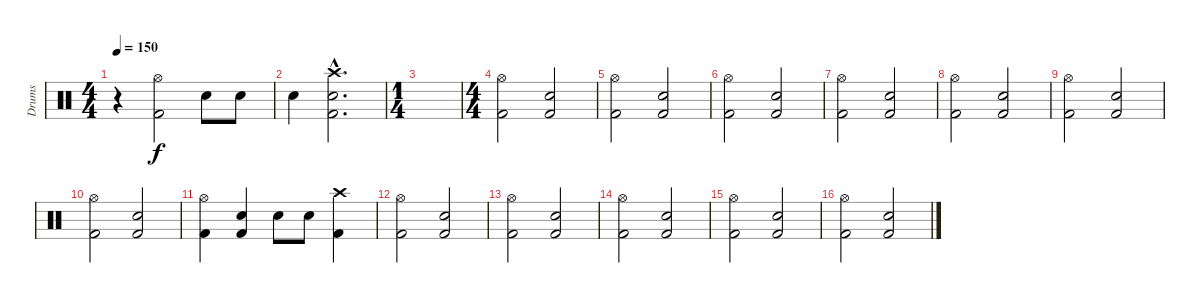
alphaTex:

\track ("Drums" "Drums") {instrument percussion}
\staff {score}
\articulation defaults
\ts (4 4)
\tempo 150
\clef neutral
\ks c
r.4{dy f} ("Hi-Hat (open)" "Kick (hit) 2").2 "Electric Snare (hit)".8 "Electric Snare (hit)".8 |
"Snare (hit) 2".4 ("Crash high (hit)"{hac} "Electric Snare (hit)"{hac} "Kick (hit) 2"{hac}).2{d} |
\ts (1 4)
|
\ts (4 4)
("Hi-Hat (open)" "Kick (hit) 2").2 ("Electric Snare (hit)" "Kick (hit) 2").2 |
("Hi-Hat (open)" "Kick (hit) 2").2 ("Electric Snare (hit)" "Kick (hit) 2").2 |
("Hi-Hat (open)" "Kick (hit) 2").2 ("Electric Snare (hit)" "Kick (hit) 2").2 |
("Hi-Hat (open)" "Kick (hit) 2").2 ("Electric Snare (hit)" "Kick (hit) 2").2 |
("Hi-Hat (open)" "Kick (hit) 2").2 ("Electric Snare (hit)" "Kick (hit) 2").2 |
("Hi-Hat (open)" "Kick (hit) 2").2 ("Electric Snare (hit)" "Kick (hit) 2").2 |
("Hi-Hat (open)" "Kick (hit) 2").2 ("Electric Snare (hit)" "Kick (hit) 2").2 |
("Hi-Hat (open)" "Kick (hit) 2").4 ("Electric Snare (hit)" "Kick (hit) 2").4 "Snare (hit) 2".8 "Snare (hit) 2".8 ("Crash high (hit)" "Kick (hit) 2").4 |
("Hi-Hat (open)" "Kick (hit) 2").2 ("Electric Snare (hit)" "Kick (hit) 2").2 |
("Hi-Hat (open)" "Kick (hit) 2").2 ("Electric Snare (hit)" "Kick (hit) 2").2 |
("Hi-Hat (open)" "Kick (hit) 2").2 ("Electric Snare (hit)" "Kick (hit) 2").2 |
("Hi-Hat (open)" "Kick (hit) 2").2 ("Electric Snare (hit)" "Kick (hit) 2").2 |
("Hi-Hat (open)" "Kick (hit) 2").2 ("Electric Snare (hit)" "Kick (hit) 2").2
